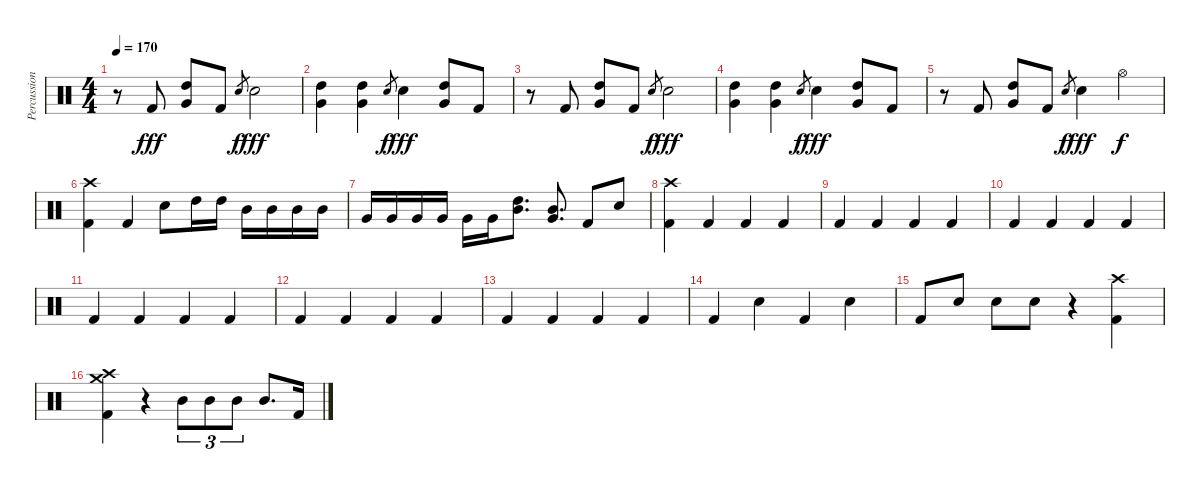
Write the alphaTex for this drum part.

\track ("Percussion" "Percussion") {instrument percussion}
\staff {score}
\articulation defaults
\ts (4 4)
\tempo 170
\clef neutral
\ks c
r.8{dy fff} "Kick (hit) 2".8 ("High Tom (hit)" "Very Low Tom (hit)").8 "Kick (hit) 2".8 "Snare (hit) 2".8{gr dy f} "Snare (hit) 2".2{dy fff} |
("High Tom (hit)" "Very Low Tom (hit)").4 ("High Tom (hit)" "Very Low Tom (hit)").4 "Snare (hit) 2".8{gr dy f} "Snare (hit) 2".4{dy fff} ("High Tom (hit)" "Very Low Tom (hit)").8 "Kick (hit) 2".8 |
r.8 "Kick (hit) 2".8 ("High Tom (hit)" "Very Low Tom (hit)").8 "Kick (hit) 2".8 "Snare (hit) 2".8{gr dy f} "Snare (hit) 2".2{dy fff} |
("High Tom (hit)" "Very Low Tom (hit)").4 ("High Tom (hit)" "Very Low Tom (hit)").4 "Snare (hit) 2".8{gr dy f} "Snare (hit) 2".4{dy fff} ("High Tom (hit)" "Very Low Tom (hit)").8 "Kick (hit) 2".8 |
r.8 "Kick (hit) 2".8 ("High Tom (hit)" "Very Low Tom (hit)").8 "Kick (hit) 2".8 "Snare (hit) 2".8{gr dy f} "Snare (hit) 2".4{dy fff} "Hi-Hat (open)".4{dy f} |
("Crash high (hit)" "Kick (hit) 2").4 "Kick (hit) 2".4 "Snare (hit) 2".8 "High Tom (hit)".16 "High Tom (hit)".16 "Mid Tom (hit)".16 "Mid Tom (hit)".16 "Mid Tom (hit)".16 "Mid Tom (hit)".16 |
"Very Low Tom (hit)".16 "Very Low Tom (hit)".16 "Very Low Tom (hit)".16 "Very Low Tom (hit)".16 "Very Low Tom (hit)".16 "Very Low Tom (hit)".16 ("High Tom (hit)" "Mid Tom (hit)").8{d} ("Mid Tom (hit)" "Very Low Tom (hit)").8{d} "Kick (hit) 2".8 "Snare (hit) 2".8 |
("Crash high (hit)" "Kick (hit) 2").4 "Kick (hit) 2".4 "Kick (hit) 2".4 "Kick (hit) 2".4 |
"Kick (hit) 2".4 "Kick (hit) 2".4 "Kick (hit) 2".4 "Kick (hit) 2".4 |
"Kick (hit) 2".4 "Kick (hit) 2".4 "Kick (hit) 2".4 "Kick (hit) 2".4 |
"Kick (hit) 2".4 "Kick (hit) 2".4 "Kick (hit) 2".4 "Kick (hit) 2".4 |
"Kick (hit) 2".4 "Kick (hit) 2".4 "Kick (hit) 2".4 "Kick (hit) 2".4 |
"Kick (hit) 2".4 "Kick (hit) 2".4 "Kick (hit) 2".4 "Kick (hit) 2".4 |
"Kick (hit) 2".4 "Snare (hit) 2".4 "Kick (hit) 2".4 "Snare (hit) 2".4 |
"Kick (hit) 2".8 "Snare (hit) 2".8 "Snare (hit) 2".8 "Snare (hit) 2".8 r.4 ("Kick (hit) 2" "Crash high (hit)").4 |
("Kick (hit) 2" "Crash high (hit)" "Crash medium (hit)").4 r.4 "Mid Tom (hit)".8{tu (3 2)} "Mid Tom (hit)".8{tu (3 2)} "Mid Tom (hit)".8{tu (3 2)} "Mid Tom (hit)".8{d} "Kick (hit) 2".16
